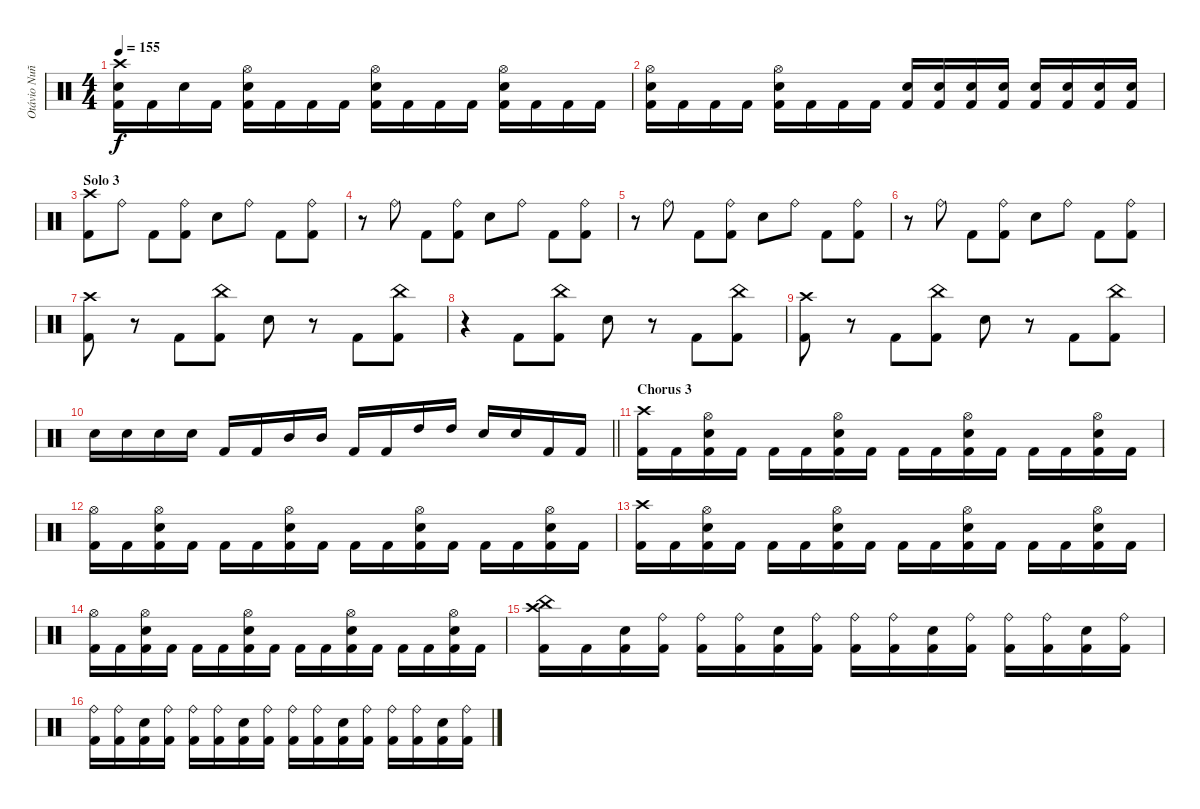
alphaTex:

\track ("Otávio Nuñez" "Otávio Nuñ") {instrument percussion}
\staff {score}
\articulation defaults
\ts (4 4)
\tempo 155
\clef neutral
\ks c
("Crash high (hit)" "Electric Snare (hit)" "Kick (hit) 2").16{dy f} "Kick (hit) 2".16 "Snare (hit)".16 "Kick (hit) 2".16 ("Hi-Hat (open)" "Electric Snare (hit)" "Kick (hit) 2").16 "Kick (hit) 2".16 "Kick (hit) 2".16 "Kick (hit) 2".16 ("Hi-Hat (open)" "Electric Snare (hit)" "Kick (hit) 2").16 "Kick (hit) 2".16 "Kick (hit) 2".16 "Kick (hit) 2".16 ("Hi-Hat (open)" "Electric Snare (hit)" "Kick (hit) 2").16 "Kick (hit) 2".16 "Kick (hit) 2".16 "Kick (hit) 2".16 |
("Hi-Hat (open)" "Electric Snare (hit)" "Kick (hit) 2").16 "Kick (hit) 2".16 "Kick (hit) 2".16 "Kick (hit) 2".16 ("Hi-Hat (open)" "Electric Snare (hit)" "Kick (hit) 2").16 "Kick (hit) 2".16 "Kick (hit) 2".16 "Kick (hit) 2".16 ("Electric Snare (hit)" "Kick (hit) 2").16 ("Electric Snare (hit)" "Kick (hit) 2").16 ("Electric Snare (hit)" "Kick (hit) 2").16 ("Electric Snare (hit)" "Kick (hit) 2").16 ("Electric Snare (hit)" "Kick (hit) 2").16 ("Electric Snare (hit)" "Kick (hit) 2").16 ("Electric Snare (hit)" "Kick (hit) 2").16 ("Electric Snare (hit)" "Kick (hit) 2").16 |
\section ("" "Solo 3")
("Crash high (hit)" "Kick (hit) 2").8 "Ride (bell)".8 "Kick (hit) 2".8 ("Ride (bell)" "Kick (hit) 2").8 "Electric Snare (hit)".8 "Ride (bell)".8 "Kick (hit) 2".8 ("Ride (bell)" "Kick (hit) 2").8 |
r.8 "Ride (bell)".8 "Kick (hit) 2".8 ("Ride (bell)" "Kick (hit) 2").8 "Electric Snare (hit)".8 "Ride (bell)".8 "Kick (hit) 2".8 ("Ride (bell)" "Kick (hit) 2").8 |
r.8 "Ride (bell)".8 "Kick (hit) 2".8 ("Ride (bell)" "Kick (hit) 2").8 "Electric Snare (hit)".8 "Ride (bell)".8 "Kick (hit) 2".8 ("Ride (bell)" "Kick (hit) 2").8 |
r.8 "Ride (bell)".8 "Kick (hit) 2".8 ("Ride (bell)" "Kick (hit) 2").8 "Electric Snare (hit)".8 "Ride (bell)".8 "Kick (hit) 2".8 ("Ride (bell)" "Kick (hit) 2").8 |
("Crash high (hit)" "Kick (hit) 2").8 r.8 "Kick (hit) 2".8 ("China (hit)" "Kick (hit) 2").8 "Electric Snare (hit)".8 r.8 "Kick (hit) 2".8 ("China (hit)" "Kick (hit) 2").8 |
r.4 "Kick (hit) 2".8 ("China (hit)" "Kick (hit) 2").8 "Electric Snare (hit)".8 r.8 "Kick (hit) 2".8 ("China (hit)" "Kick (hit) 2").8 |
("Crash high (hit)" "Kick (hit) 2").8 r.8 "Kick (hit) 2".8 ("China (hit)" "Kick (hit) 2").8 "Electric Snare (hit)".8 r.8 "Kick (hit) 2".8 ("China (hit)" "Kick (hit) 2").8 |
\barLineRight lightlight "Electric Snare (hit)".16 "Electric Snare (hit)".16 "Electric Snare (hit)".16 "Electric Snare (hit)".16 "Kick (hit) 2".16 "Kick (hit) 2".16 "Mid Tom (hit)".16 "Mid Tom (hit)".16 "Kick (hit) 2".16 "Kick (hit) 2".16 "High Tom (hit)".16 "High Tom (hit)".16 "Electric Snare (hit)".16 "Electric Snare (hit)".16 "Kick (hit) 2".16 "Kick (hit) 2".16
|
\section ("" "Chorus 3")
("Crash high (hit)" "Kick (hit) 2").16 "Kick (hit) 2".16 ("Hi-Hat (open)" "Electric Snare (hit)" "Kick (hit) 2").16 "Kick (hit) 2".16 "Kick (hit) 2".16 "Kick (hit) 2".16 ("Hi-Hat (open)" "Electric Snare (hit)" "Kick (hit) 2").16 "Kick (hit) 2".16 "Kick (hit) 2".16 "Kick (hit) 2".16 ("Hi-Hat (open)" "Electric Snare (hit)" "Kick (hit) 2").16 "Kick (hit) 2".16 "Kick (hit) 2".16 "Kick (hit) 2".16 ("Hi-Hat (open)" "Electric Snare (hit)" "Kick (hit) 2").16 "Kick (hit) 2".16 |
("Hi-Hat (open)" "Kick (hit) 2").16 "Kick (hit) 2".16 ("Hi-Hat (open)" "Electric Snare (hit)" "Kick (hit) 2").16 "Kick (hit) 2".16 "Kick (hit) 2".16 "Kick (hit) 2".16 ("Hi-Hat (open)" "Electric Snare (hit)" "Kick (hit) 2").16 "Kick (hit) 2".16 "Kick (hit) 2".16 "Kick (hit) 2".16 ("Hi-Hat (open)" "Electric Snare (hit)" "Kick (hit) 2").16 "Kick (hit) 2".16 "Kick (hit) 2".16 "Kick (hit) 2".16 ("Hi-Hat (open)" "Electric Snare (hit)" "Kick (hit) 2").16 "Kick (hit) 2".16 |
("Crash high (hit)" "Kick (hit) 2").16 "Kick (hit) 2".16 ("Hi-Hat (open)" "Electric Snare (hit)" "Kick (hit) 2").16 "Kick (hit) 2".16 "Kick (hit) 2".16 "Kick (hit) 2".16 ("Hi-Hat (open)" "Electric Snare (hit)" "Kick (hit) 2").16 "Kick (hit) 2".16 "Kick (hit) 2".16 "Kick (hit) 2".16 ("Hi-Hat (open)" "Electric Snare (hit)" "Kick (hit) 2").16 "Kick (hit) 2".16 "Kick (hit) 2".16 "Kick (hit) 2".16 ("Hi-Hat (open)" "Electric Snare (hit)" "Kick (hit) 2").16 "Kick (hit) 2".16 |
("Hi-Hat (open)" "Kick (hit) 2").16 "Kick (hit) 2".16 ("Hi-Hat (open)" "Electric Snare (hit)" "Kick (hit) 2").16 "Kick (hit) 2".16 "Kick (hit) 2".16 "Kick (hit) 2".16 ("Hi-Hat (open)" "Electric Snare (hit)" "Kick (hit) 2").16 "Kick (hit) 2".16 "Kick (hit) 2".16 "Kick (hit) 2".16 ("Hi-Hat (open)" "Electric Snare (hit)" "Kick (hit) 2").16 "Kick (hit) 2".16 "Kick (hit) 2".16 "Kick (hit) 2".16 ("Hi-Hat (open)" "Electric Snare (hit)" "Kick (hit) 2").16 "Kick (hit) 2".16 |
("China (hit)" "Crash high (hit)" "Kick (hit) 2").16 "Kick (hit) 2".16 ("Electric Snare (hit)" "Kick (hit) 2").16 ("Ride (bell)" "Kick (hit) 2").16 ("Ride (bell)" "Kick (hit) 2").16 ("Ride (bell)" "Kick (hit) 2").16 ("Electric Snare (hit)" "Kick (hit) 2").16 ("Ride (bell)" "Kick (hit) 2").16 ("Ride (bell)" "Kick (hit) 2").16 ("Ride (bell)" "Kick (hit) 2").16 ("Electric Snare (hit)" "Kick (hit) 2").16 ("Ride (bell)" "Kick (hit) 2").16 ("Ride (bell)" "Kick (hit) 2").16 ("Ride (bell)" "Kick (hit) 2").16 ("Electric Snare (hit)" "Kick (hit) 2").16 ("Ride (bell)" "Kick (hit) 2").16 |
("Ride (bell)" "Kick (hit) 2").16 ("Ride (bell)" "Kick (hit) 2").16 ("Electric Snare (hit)" "Kick (hit) 2").16 ("Ride (bell)" "Kick (hit) 2").16 ("Ride (bell)" "Kick (hit) 2").16 ("Ride (bell)" "Kick (hit) 2").16 ("Electric Snare (hit)" "Kick (hit) 2").16 ("Ride (bell)" "Kick (hit) 2").16 ("Ride (bell)" "Kick (hit) 2").16 ("Ride (bell)" "Kick (hit) 2").16 ("Electric Snare (hit)" "Kick (hit) 2").16 ("Ride (bell)" "Kick (hit) 2").16 ("Ride (bell)" "Kick (hit) 2").16 ("Ride (bell)" "Kick (hit) 2").16 ("Electric Snare (hit)" "Kick (hit) 2").16 ("Ride (bell)" "Kick (hit) 2").16
